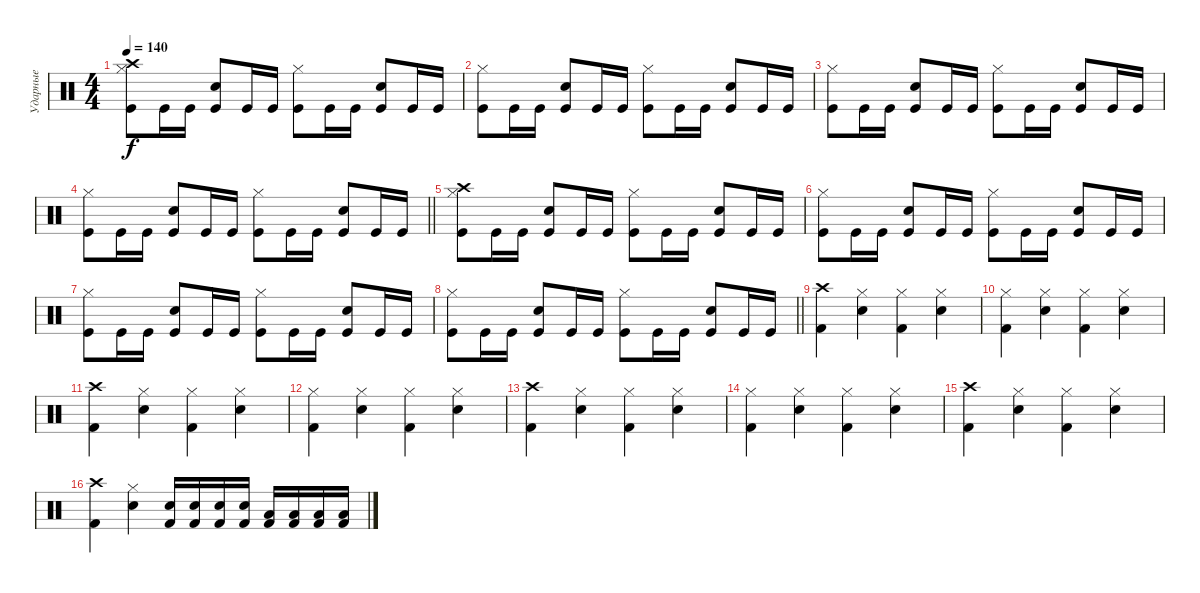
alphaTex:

\track ("Ударные" "Ударные") {instrument percussion}
\staff {score}
\articulation defaults
\ts (4 4)
\tempo 140
\clef neutral
\ks c
("Crash high (hit)" "Hi-Hat (closed)" "Kick (hit)").8{dy f} "Kick (hit)".16 "Kick (hit)".16 ("Snare (hit) 2" "Kick (hit)").8 "Kick (hit)".16 "Kick (hit)".16 ("Hi-Hat (closed)" "Kick (hit)").8 "Kick (hit)".16 "Kick (hit)".16 ("Snare (hit) 2" "Kick (hit)").8 "Kick (hit)".16 "Kick (hit)".16 |
("Hi-Hat (closed)" "Kick (hit)").8 "Kick (hit)".16 "Kick (hit)".16 ("Snare (hit) 2" "Kick (hit)").8 "Kick (hit)".16 "Kick (hit)".16 ("Hi-Hat (closed)" "Kick (hit)").8 "Kick (hit)".16 "Kick (hit)".16 ("Snare (hit) 2" "Kick (hit)").8 "Kick (hit)".16 "Kick (hit)".16 |
("Hi-Hat (closed)" "Kick (hit)").8 "Kick (hit)".16 "Kick (hit)".16 ("Snare (hit) 2" "Kick (hit)").8 "Kick (hit)".16 "Kick (hit)".16 ("Hi-Hat (closed)" "Kick (hit)").8 "Kick (hit)".16 "Kick (hit)".16 ("Snare (hit) 2" "Kick (hit)").8 "Kick (hit)".16 "Kick (hit)".16 |
\barLineRight lightlight
("Hi-Hat (closed)" "Kick (hit)").8 "Kick (hit)".16 "Kick (hit)".16 ("Snare (hit) 2" "Kick (hit)").8 "Kick (hit)".16 "Kick (hit)".16 ("Hi-Hat (closed)" "Kick (hit)").8 "Kick (hit)".16 "Kick (hit)".16 ("Snare (hit) 2" "Kick (hit)").8 "Kick (hit)".16 "Kick (hit)".16 |
("Crash high (hit)" "Hi-Hat (closed)" "Kick (hit)").8 "Kick (hit)".16 "Kick (hit)".16 ("Snare (hit) 2" "Kick (hit)").8 "Kick (hit)".16 "Kick (hit)".16 ("Hi-Hat (closed)" "Kick (hit)").8 "Kick (hit)".16 "Kick (hit)".16 ("Snare (hit) 2" "Kick (hit)").8 "Kick (hit)".16 "Kick (hit)".16 |
("Hi-Hat (closed)" "Kick (hit)").8 "Kick (hit)".16 "Kick (hit)".16 ("Snare (hit) 2" "Kick (hit)").8 "Kick (hit)".16 "Kick (hit)".16 ("Hi-Hat (closed)" "Kick (hit)").8 "Kick (hit)".16 "Kick (hit)".16 ("Snare (hit) 2" "Kick (hit)").8 "Kick (hit)".16 "Kick (hit)".16 |
("Hi-Hat (closed)" "Kick (hit)").8 "Kick (hit)".16 "Kick (hit)".16 ("Snare (hit) 2" "Kick (hit)").8 "Kick (hit)".16 "Kick (hit)".16 ("Hi-Hat (closed)" "Kick (hit)").8 "Kick (hit)".16 "Kick (hit)".16 ("Snare (hit) 2" "Kick (hit)").8 "Kick (hit)".16 "Kick (hit)".16 |
\barLineRight lightlight
("Hi-Hat (closed)" "Kick (hit)").8 "Kick (hit)".16 "Kick (hit)".16 ("Snare (hit) 2" "Kick (hit)").8 "Kick (hit)".16 "Kick (hit)".16 ("Hi-Hat (closed)" "Kick (hit)").8 "Kick (hit)".16 "Kick (hit)".16 ("Snare (hit) 2" "Kick (hit)").8 "Kick (hit)".16 "Kick (hit)".16 |
("Crash high (hit)" "Kick (hit) 2").4 ("Hi-Hat (closed)" "Snare (hit) 2").4 ("Hi-Hat (closed)" "Kick (hit) 2").4 ("Hi-Hat (closed)" "Snare (hit) 2").4 |
("Hi-Hat (closed)" "Kick (hit) 2").4 ("Hi-Hat (closed)" "Snare (hit) 2").4 ("Hi-Hat (closed)" "Kick (hit) 2").4 ("Hi-Hat (closed)" "Snare (hit) 2").4 |
("Crash high (hit)" "Kick (hit) 2").4 ("Hi-Hat (closed)" "Snare (hit) 2").4 ("Hi-Hat (closed)" "Kick (hit) 2").4 ("Hi-Hat (closed)" "Snare (hit) 2").4 |
("Hi-Hat (closed)" "Kick (hit) 2").4 ("Hi-Hat (closed)" "Snare (hit) 2").4 ("Hi-Hat (closed)" "Kick (hit) 2").4 ("Hi-Hat (closed)" "Snare (hit) 2").4 |
("Crash high (hit)" "Kick (hit) 2").4 ("Hi-Hat (closed)" "Snare (hit) 2").4 ("Hi-Hat (closed)" "Kick (hit) 2").4 ("Hi-Hat (closed)" "Snare (hit) 2").4 |
("Hi-Hat (closed)" "Kick (hit) 2").4 ("Hi-Hat (closed)" "Snare (hit) 2").4 ("Hi-Hat (closed)" "Kick (hit) 2").4 ("Hi-Hat (closed)" "Snare (hit) 2").4 |
("Crash high (hit)" "Kick (hit) 2").4 ("Hi-Hat (closed)" "Snare (hit) 2").4 ("Hi-Hat (closed)" "Kick (hit) 2").4 ("Hi-Hat (closed)" "Snare (hit) 2").4 |
("Crash high (hit)" "Kick (hit) 2").4 ("Hi-Hat (closed)" "Snare (hit) 2").4 ("Snare (hit) 2" "Kick (hit) 2").16 ("Snare (hit) 2" "Kick (hit) 2").16 ("Snare (hit) 2" "Kick (hit) 2").16 ("Snare (hit) 2" "Kick (hit) 2").16 ("Low Tom (hit)" "Kick (hit) 2").16 ("Low Tom (hit)" "Kick (hit) 2").16 ("Low Tom (hit)" "Kick (hit) 2").16 ("Low Tom (hit)" "Kick (hit) 2").16
